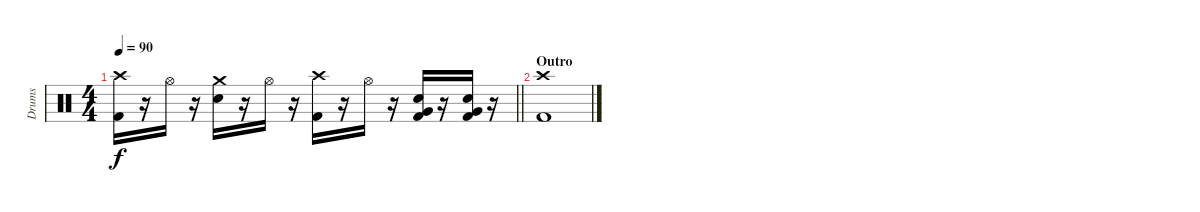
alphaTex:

\track ("Drums" "Drums") {instrument percussion}
\staff {score}
\articulation defaults
\ts (4 4)
\tempo 90
\clef neutral
\barLineRight lightlight
\ks c
("Crash high (hit)" "Kick (hit) 2").16{dy f} r.16 "Hi-Hat (open)".16 r.16 ("Crash medium (hit)" "Snare (hit) 2").16 r.16 "Hi-Hat (open)".16 r.16 ("Crash high (hit)" "Kick (hit) 2").16 r.16 "Hi-Hat (open)".16 r.16 ("Very Low Tom (hit)" "Snare (hit) 2" "Kick (hit) 2").16 r.16 ("Very Low Tom (hit)" "Snare (hit) 2" "Kick (hit) 2").16 r.16 |
\section ("" "Outro")
("Crash high (hit)" "Kick (hit) 2").1
